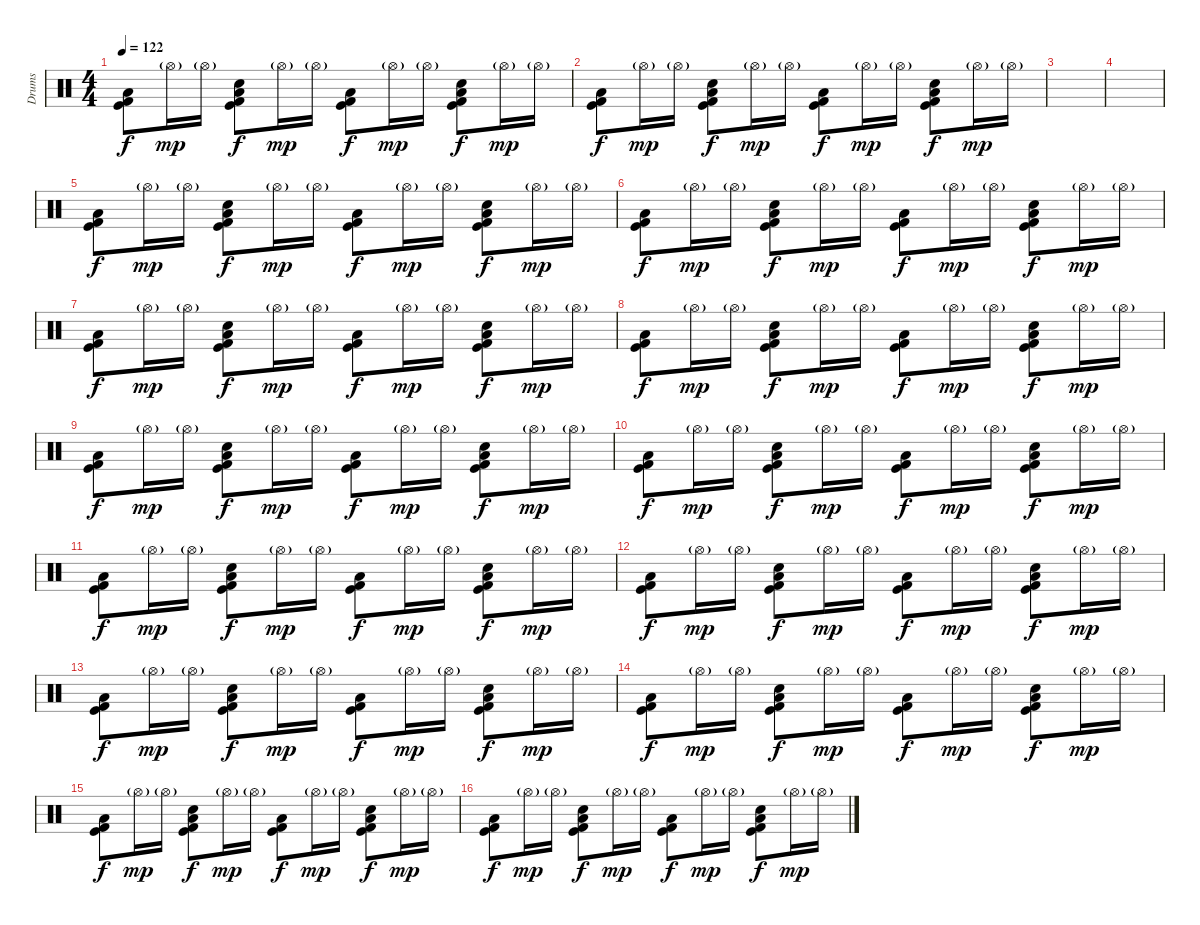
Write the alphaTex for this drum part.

\track ("Drums" "Drums") {instrument percussion}
\staff {score}
\articulation defaults
\ts (4 4)
\tempo 122
\clef neutral
\ks c
("Kick (hit)" "Kick (hit) 2" "Low Floor Tom (hit)").8{dy f} "Hi-Hat (open)"{g}.16{dy mp} "Hi-Hat (open)"{g}.16 ("Electric Snare (hit)" "Kick (hit)" "Kick (hit) 2" "Low Floor Tom (hit)").8{dy f} "Hi-Hat (open)"{g}.16{dy mp} "Hi-Hat (open)"{g}.16 ("Kick (hit)" "Kick (hit) 2" "Low Floor Tom (hit)").8{dy f} "Hi-Hat (open)"{g}.16{dy mp} "Hi-Hat (open)"{g}.16 ("Electric Snare (hit)" "Kick (hit)" "Kick (hit) 2" "Low Floor Tom (hit)").8{dy f} "Hi-Hat (open)"{g}.16{dy mp} "Hi-Hat (open)"{g}.16 |
("Kick (hit)" "Kick (hit) 2" "Low Floor Tom (hit)").8{dy f} "Hi-Hat (open)"{g}.16{dy mp} "Hi-Hat (open)"{g}.16 ("Electric Snare (hit)" "Kick (hit)" "Kick (hit) 2" "Low Floor Tom (hit)").8{dy f} "Hi-Hat (open)"{g}.16{dy mp} "Hi-Hat (open)"{g}.16 ("Kick (hit)" "Kick (hit) 2" "Low Floor Tom (hit)").8{dy f} "Hi-Hat (open)"{g}.16{dy mp} "Hi-Hat (open)"{g}.16 ("Electric Snare (hit)" "Kick (hit)" "Kick (hit) 2" "Low Floor Tom (hit)").8{dy f} "Hi-Hat (open)"{g}.16{dy mp} "Hi-Hat (open)"{g}.16 |
|
|
("Kick (hit)" "Kick (hit) 2" "Low Floor Tom (hit)").8{dy f} "Hi-Hat (open)"{g}.16{dy mp} "Hi-Hat (open)"{g}.16 ("Electric Snare (hit)" "Kick (hit)" "Kick (hit) 2" "Low Floor Tom (hit)").8{dy f} "Hi-Hat (open)"{g}.16{dy mp} "Hi-Hat (open)"{g}.16 ("Kick (hit)" "Kick (hit) 2" "Low Floor Tom (hit)").8{dy f} "Hi-Hat (open)"{g}.16{dy mp} "Hi-Hat (open)"{g}.16 ("Electric Snare (hit)" "Kick (hit)" "Kick (hit) 2" "Low Floor Tom (hit)").8{dy f} "Hi-Hat (open)"{g}.16{dy mp} "Hi-Hat (open)"{g}.16 |
("Kick (hit)" "Kick (hit) 2" "Low Floor Tom (hit)").8{dy f} "Hi-Hat (open)"{g}.16{dy mp} "Hi-Hat (open)"{g}.16 ("Electric Snare (hit)" "Kick (hit)" "Kick (hit) 2" "Low Floor Tom (hit)").8{dy f} "Hi-Hat (open)"{g}.16{dy mp} "Hi-Hat (open)"{g}.16 ("Kick (hit)" "Kick (hit) 2" "Low Floor Tom (hit)").8{dy f} "Hi-Hat (open)"{g}.16{dy mp} "Hi-Hat (open)"{g}.16 ("Electric Snare (hit)" "Kick (hit)" "Kick (hit) 2" "Low Floor Tom (hit)").8{dy f} "Hi-Hat (open)"{g}.16{dy mp} "Hi-Hat (open)"{g}.16 |
("Kick (hit)" "Kick (hit) 2" "Low Floor Tom (hit)").8{dy f} "Hi-Hat (open)"{g}.16{dy mp} "Hi-Hat (open)"{g}.16 ("Electric Snare (hit)" "Kick (hit)" "Kick (hit) 2" "Low Floor Tom (hit)").8{dy f} "Hi-Hat (open)"{g}.16{dy mp} "Hi-Hat (open)"{g}.16 ("Kick (hit)" "Kick (hit) 2" "Low Floor Tom (hit)").8{dy f} "Hi-Hat (open)"{g}.16{dy mp} "Hi-Hat (open)"{g}.16 ("Electric Snare (hit)" "Kick (hit)" "Kick (hit) 2" "Low Floor Tom (hit)").8{dy f} "Hi-Hat (open)"{g}.16{dy mp} "Hi-Hat (open)"{g}.16 |
("Kick (hit)" "Kick (hit) 2" "Low Floor Tom (hit)").8{dy f} "Hi-Hat (open)"{g}.16{dy mp} "Hi-Hat (open)"{g}.16 ("Electric Snare (hit)" "Kick (hit)" "Kick (hit) 2" "Low Floor Tom (hit)").8{dy f} "Hi-Hat (open)"{g}.16{dy mp} "Hi-Hat (open)"{g}.16 ("Kick (hit)" "Kick (hit) 2" "Low Floor Tom (hit)").8{dy f} "Hi-Hat (open)"{g}.16{dy mp} "Hi-Hat (open)"{g}.16 ("Electric Snare (hit)" "Kick (hit)" "Kick (hit) 2" "Low Floor Tom (hit)").8{dy f} "Hi-Hat (open)"{g}.16{dy mp} "Hi-Hat (open)"{g}.16 |
("Kick (hit)" "Kick (hit) 2" "Low Floor Tom (hit)").8{dy f} "Hi-Hat (open)"{g}.16{dy mp} "Hi-Hat (open)"{g}.16 ("Electric Snare (hit)" "Kick (hit)" "Kick (hit) 2" "Low Floor Tom (hit)").8{dy f} "Hi-Hat (open)"{g}.16{dy mp} "Hi-Hat (open)"{g}.16 ("Kick (hit)" "Kick (hit) 2" "Low Floor Tom (hit)").8{dy f} "Hi-Hat (open)"{g}.16{dy mp} "Hi-Hat (open)"{g}.16 ("Electric Snare (hit)" "Kick (hit)" "Kick (hit) 2" "Low Floor Tom (hit)").8{dy f} "Hi-Hat (open)"{g}.16{dy mp} "Hi-Hat (open)"{g}.16 |
("Kick (hit)" "Kick (hit) 2" "Low Floor Tom (hit)").8{dy f} "Hi-Hat (open)"{g}.16{dy mp} "Hi-Hat (open)"{g}.16 ("Electric Snare (hit)" "Kick (hit)" "Kick (hit) 2" "Low Floor Tom (hit)").8{dy f} "Hi-Hat (open)"{g}.16{dy mp} "Hi-Hat (open)"{g}.16 ("Kick (hit)" "Kick (hit) 2" "Low Floor Tom (hit)").8{dy f} "Hi-Hat (open)"{g}.16{dy mp} "Hi-Hat (open)"{g}.16 ("Electric Snare (hit)" "Kick (hit)" "Kick (hit) 2" "Low Floor Tom (hit)").8{dy f} "Hi-Hat (open)"{g}.16{dy mp} "Hi-Hat (open)"{g}.16 |
("Kick (hit)" "Kick (hit) 2" "Low Floor Tom (hit)").8{dy f} "Hi-Hat (open)"{g}.16{dy mp} "Hi-Hat (open)"{g}.16 ("Electric Snare (hit)" "Kick (hit)" "Kick (hit) 2" "Low Floor Tom (hit)").8{dy f} "Hi-Hat (open)"{g}.16{dy mp} "Hi-Hat (open)"{g}.16 ("Kick (hit)" "Kick (hit) 2" "Low Floor Tom (hit)").8{dy f} "Hi-Hat (open)"{g}.16{dy mp} "Hi-Hat (open)"{g}.16 ("Electric Snare (hit)" "Kick (hit)" "Kick (hit) 2" "Low Floor Tom (hit)").8{dy f} "Hi-Hat (open)"{g}.16{dy mp} "Hi-Hat (open)"{g}.16 |
("Kick (hit)" "Kick (hit) 2" "Low Floor Tom (hit)").8{dy f} "Hi-Hat (open)"{g}.16{dy mp} "Hi-Hat (open)"{g}.16 ("Electric Snare (hit)" "Kick (hit)" "Kick (hit) 2" "Low Floor Tom (hit)").8{dy f} "Hi-Hat (open)"{g}.16{dy mp} "Hi-Hat (open)"{g}.16 ("Kick (hit)" "Kick (hit) 2" "Low Floor Tom (hit)").8{dy f} "Hi-Hat (open)"{g}.16{dy mp} "Hi-Hat (open)"{g}.16 ("Electric Snare (hit)" "Kick (hit)" "Kick (hit) 2" "Low Floor Tom (hit)").8{dy f} "Hi-Hat (open)"{g}.16{dy mp} "Hi-Hat (open)"{g}.16 |
("Kick (hit)" "Kick (hit) 2" "Low Floor Tom (hit)").8{dy f} "Hi-Hat (open)"{g}.16{dy mp} "Hi-Hat (open)"{g}.16 ("Electric Snare (hit)" "Kick (hit)" "Kick (hit) 2" "Low Floor Tom (hit)").8{dy f} "Hi-Hat (open)"{g}.16{dy mp} "Hi-Hat (open)"{g}.16 ("Kick (hit)" "Kick (hit) 2" "Low Floor Tom (hit)").8{dy f} "Hi-Hat (open)"{g}.16{dy mp} "Hi-Hat (open)"{g}.16 ("Electric Snare (hit)" "Kick (hit)" "Kick (hit) 2" "Low Floor Tom (hit)").8{dy f} "Hi-Hat (open)"{g}.16{dy mp} "Hi-Hat (open)"{g}.16 |
("Kick (hit)" "Kick (hit) 2" "Low Floor Tom (hit)").8{dy f} "Hi-Hat (open)"{g}.16{dy mp} "Hi-Hat (open)"{g}.16 ("Electric Snare (hit)" "Kick (hit)" "Kick (hit) 2" "Low Floor Tom (hit)").8{dy f} "Hi-Hat (open)"{g}.16{dy mp} "Hi-Hat (open)"{g}.16 ("Kick (hit)" "Kick (hit) 2" "Low Floor Tom (hit)").8{dy f} "Hi-Hat (open)"{g}.16{dy mp} "Hi-Hat (open)"{g}.16 ("Electric Snare (hit)" "Kick (hit)" "Kick (hit) 2" "Low Floor Tom (hit)").8{dy f} "Hi-Hat (open)"{g}.16{dy mp} "Hi-Hat (open)"{g}.16 |
("Kick (hit)" "Kick (hit) 2" "Low Floor Tom (hit)").8{dy f} "Hi-Hat (open)"{g}.16{dy mp} "Hi-Hat (open)"{g}.16 ("Electric Snare (hit)" "Kick (hit)" "Kick (hit) 2" "Low Floor Tom (hit)").8{dy f} "Hi-Hat (open)"{g}.16{dy mp} "Hi-Hat (open)"{g}.16 ("Kick (hit)" "Kick (hit) 2" "Low Floor Tom (hit)").8{dy f} "Hi-Hat (open)"{g}.16{dy mp} "Hi-Hat (open)"{g}.16 ("Electric Snare (hit)" "Kick (hit)" "Kick (hit) 2" "Low Floor Tom (hit)").8{dy f} "Hi-Hat (open)"{g}.16{dy mp} "Hi-Hat (open)"{g}.16 |
("Kick (hit)" "Kick (hit) 2" "Low Floor Tom (hit)").8{dy f} "Hi-Hat (open)"{g}.16{dy mp} "Hi-Hat (open)"{g}.16 ("Electric Snare (hit)" "Kick (hit)" "Kick (hit) 2" "Low Floor Tom (hit)").8{dy f} "Hi-Hat (open)"{g}.16{dy mp} "Hi-Hat (open)"{g}.16 ("Kick (hit)" "Kick (hit) 2" "Low Floor Tom (hit)").8{dy f} "Hi-Hat (open)"{g}.16{dy mp} "Hi-Hat (open)"{g}.16 ("Electric Snare (hit)" "Kick (hit)" "Kick (hit) 2" "Low Floor Tom (hit)").8{dy f} "Hi-Hat (open)"{g}.16{dy mp} "Hi-Hat (open)"{g}.16
